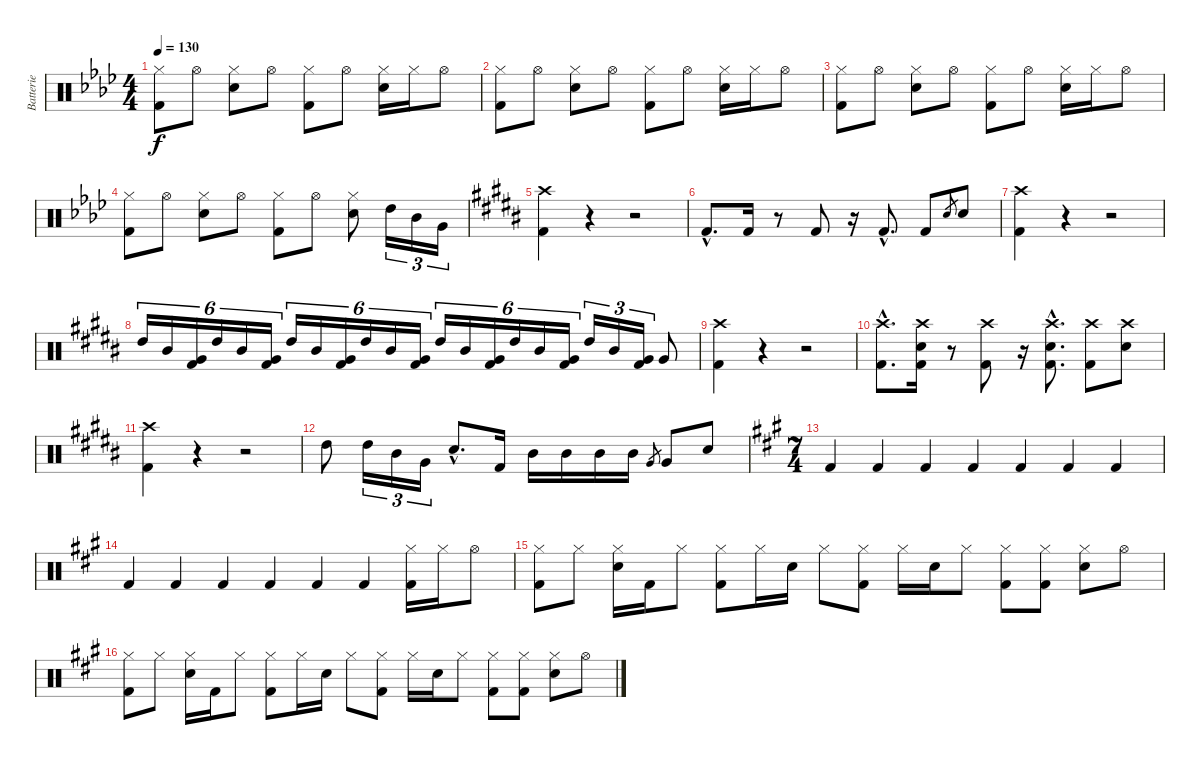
\track ("Batterie" "Batterie") {instrument percussion}
\staff {score}
\articulation defaults
\ts (4 4)
\tempo 130
\clef neutral
\ks ab
("Hi-Hat (closed)" "Kick (hit) 2").8{dy f} "Hi-Hat (open)".8 ("Hi-Hat (closed)" "Snare (hit) 2").8 "Hi-Hat (open)".8 ("Hi-Hat (closed)" "Kick (hit) 2").8 "Hi-Hat (open)".8 ("Hi-Hat (closed)" "Snare (hit) 2").16 "Hi-Hat (closed)".16 "Hi-Hat (open)".8 |
("Hi-Hat (closed)" "Kick (hit) 2").8 "Hi-Hat (open)".8 ("Hi-Hat (closed)" "Snare (hit) 2").8 "Hi-Hat (open)".8 ("Hi-Hat (closed)" "Kick (hit) 2").8 "Hi-Hat (open)".8 ("Hi-Hat (closed)" "Snare (hit) 2").16 "Hi-Hat (closed)".16 "Hi-Hat (open)".8 |
("Hi-Hat (closed)" "Kick (hit) 2").8 "Hi-Hat (open)".8 ("Hi-Hat (closed)" "Snare (hit) 2").8 "Hi-Hat (open)".8 ("Hi-Hat (closed)" "Kick (hit) 2").8 "Hi-Hat (open)".8 ("Hi-Hat (closed)" "Snare (hit) 2").16 "Hi-Hat (closed)".16 "Hi-Hat (open)".8 |
("Hi-Hat (closed)" "Kick (hit) 2").8 "Hi-Hat (open)".8 ("Hi-Hat (closed)" "Snare (hit) 2").8 "Hi-Hat (open)".8 ("Hi-Hat (closed)" "Kick (hit) 2").8 "Hi-Hat (open)".8 ("Hi-Hat (closed)" "Snare (hit) 2").8 "High Tom (hit)".16{tu (3 2)} "Mid Tom (hit)".16{tu (3 2)} "Very Low Tom (hit)".16{tu (3 2)} |
\ks b
("Crash high (hit)" "Kick (hit) 2").4 r.4 r.2 |
"Kick (hit) 2"{hac}.8{d} "Kick (hit) 2".16 r.8 "Kick (hit) 2".8 r.16 "Kick (hit) 2"{hac}.8{d} "Kick (hit) 2".8 "Snare (hit) 2".8{gr} "Snare (hit) 2".8 |
("Crash high (hit)" "Kick (hit) 2").4 r.4 r.2 |
"High Tom (hit)".16{tu (6 4)} "Mid Tom (hit)".16{tu (6 4)} ("Very Low Tom (hit)" "Kick (hit) 2").16{tu (6 4)} "High Tom (hit)".16{tu (6 4)} "Mid Tom (hit)".16{tu (6 4)} ("Very Low Tom (hit)" "Kick (hit) 2").16{tu (6 4)} "High Tom (hit)".16{tu (6 4)} "Mid Tom (hit)".16{tu (6 4)} ("Very Low Tom (hit)" "Kick (hit) 2").16{tu (6 4)} "High Tom (hit)".16{tu (6 4)} "Mid Tom (hit)".16{tu (6 4)} ("Very Low Tom (hit)" "Kick (hit) 2").16{tu (6 4)} "High Tom (hit)".16{tu (6 4)} "Mid Tom (hit)".16{tu (6 4)} ("Very Low Tom (hit)" "Kick (hit) 2").16{tu (6 4)} "High Tom (hit)".16{tu (6 4)} "Mid Tom (hit)".16{tu (6 4)} ("Very Low Tom (hit)" "Kick (hit) 2").16{tu (6 4)} "High Tom (hit)".16{tu (3 2)} "Mid Tom (hit)".16{tu (3 2)} ("Very Low Tom (hit)" "Kick (hit) 2").16{tu (3 2)} "Very Low Tom (hit)".8 |
("Crash high (hit)" "Kick (hit) 2").4 r.4 r.2 |
("Crash high (hit)"{hac} "Kick (hit) 2"{hac}).8{d} ("Crash high (hit)" "Snare (hit) 2" "Kick (hit) 2").16 r.8 ("Crash high (hit)" "Kick (hit) 2").8 r.16 ("Crash high (hit)"{hac} "Snare (hit) 2"{hac} "Kick (hit) 2"{hac}).8{d} ("Crash high (hit)" "Kick (hit) 2").8 ("Crash high (hit)" "Snare (hit) 2").8 |
("Crash high (hit)" "Kick (hit) 2").4 r.4 r.2 |
"High Tom (hit)".8 "High Tom (hit)".16{tu (3 2)} "Mid Tom (hit)".16{tu (3 2)} "Very Low Tom (hit)".16{tu (3 2)} "Snare (hit) 2"{hac}.8{d} "Kick (hit) 2".16 "Mid Tom (hit)".16 "Mid Tom (hit)".16 "Mid Tom (hit)".16 "Mid Tom (hit)".16 "Very Low Tom (hit)".8{gr} "Very Low Tom (hit)".8 "Snare (hit) 2".8 |
\ts (7 4)
\ks a "Kick (hit) 2".4 "Kick (hit) 2".4 "Kick (hit) 2".4 "Kick (hit) 2".4 "Kick (hit) 2".4 "Kick (hit) 2".4 "Kick (hit) 2".4
|
"Kick (hit) 2".4 "Kick (hit) 2".4 "Kick (hit) 2".4 "Kick (hit) 2".4 "Kick (hit) 2".4 "Kick (hit) 2".4 ("Hi-Hat (closed)" "Kick (hit) 2").16 "Hi-Hat (closed)".16 "Hi-Hat (open)".8 |
("Hi-Hat (closed)" "Kick (hit) 2").8 "Hi-Hat (closed)".8 ("Hi-Hat (closed)" "Snare (hit) 2").16 "Kick (hit) 2".16 "Hi-Hat (closed)".8 ("Hi-Hat (closed)" "Kick (hit) 2").8 "Hi-Hat (closed)".16 "Snare (hit) 2".16 "Hi-Hat (closed)".8 ("Hi-Hat (closed)" "Kick (hit) 2").8 "Hi-Hat (closed)".16 "Snare (hit) 2".16 "Hi-Hat (closed)".8 ("Hi-Hat (closed)" "Kick (hit) 2").8 ("Hi-Hat (closed)" "Kick (hit) 2").8 ("Hi-Hat (closed)" "Snare (hit) 2").8 "Hi-Hat (open)".8 |
("Hi-Hat (closed)" "Kick (hit) 2").8 "Hi-Hat (closed)".8 ("Hi-Hat (closed)" "Snare (hit) 2").16 "Kick (hit) 2".16 "Hi-Hat (closed)".8 ("Hi-Hat (closed)" "Kick (hit) 2").8 "Hi-Hat (closed)".16 "Snare (hit) 2".16 "Hi-Hat (closed)".8 ("Hi-Hat (closed)" "Kick (hit) 2").8 "Hi-Hat (closed)".16 "Snare (hit) 2".16 "Hi-Hat (closed)".8 ("Hi-Hat (closed)" "Kick (hit) 2").8 ("Hi-Hat (closed)" "Kick (hit) 2").8 ("Hi-Hat (closed)" "Snare (hit) 2").8 "Hi-Hat (open)".8
